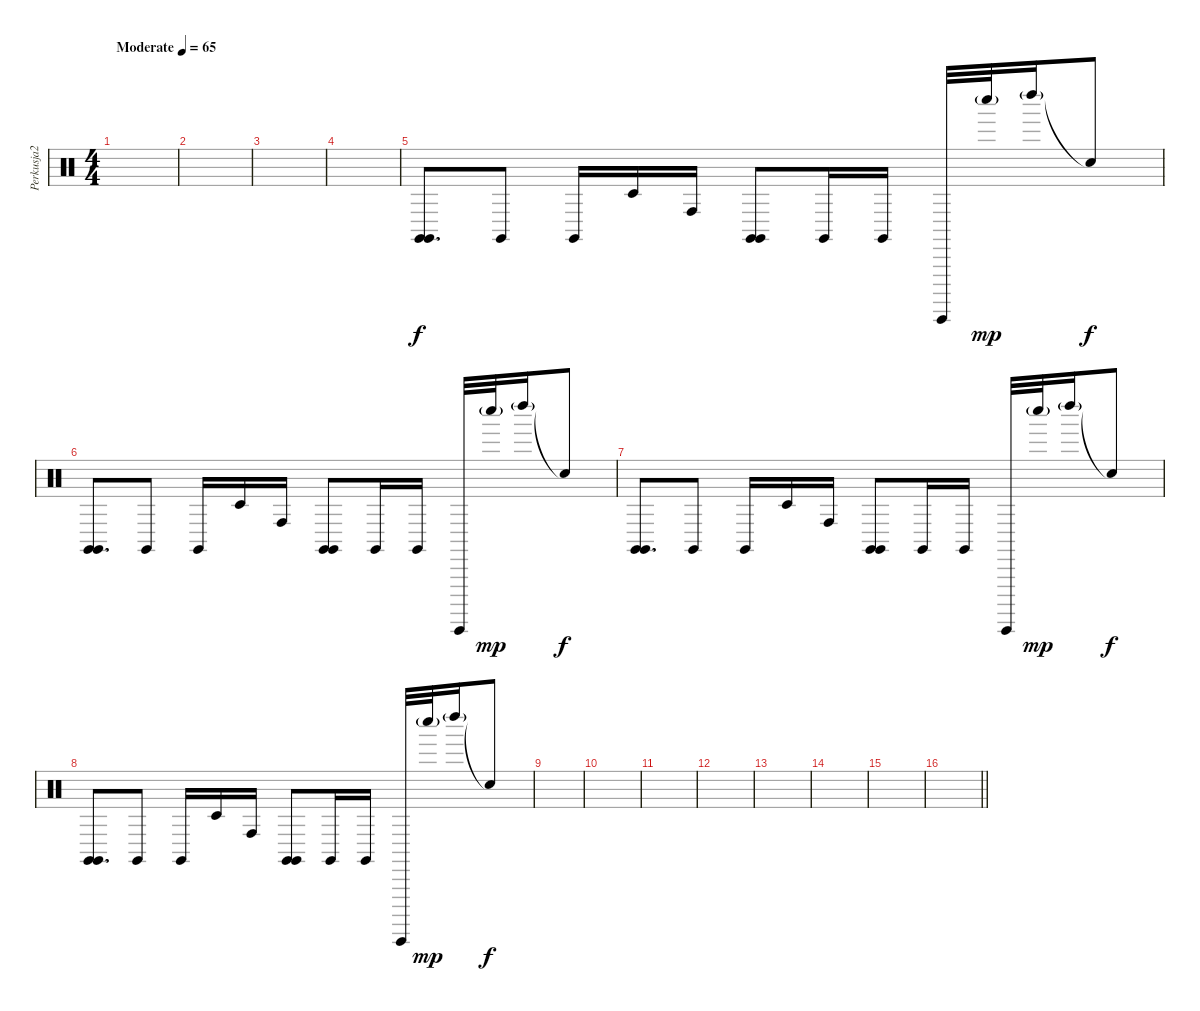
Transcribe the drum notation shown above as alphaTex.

\track ("Perkusja2" "Perkusja2") {instrument percussion}
\staff {score}
\articulation defaults
\ts (4 4)
\tempo (65 "Moderate")
\clef neutral
\ks c
|
|
|
|
("Claves (hit)" "Claves (hit)").8{d} "Claves (hit)".8 "Claves (hit)".16 "Timbale low (hit)".16 "Conga high (hit)".16 ("Claves (hit)" "Claves (hit)").8 "Claves (hit)".16 "Claves (hit)".16 "Guiro (hit)".32 "Whistle low (hit)"{g}.32{dy mp} "Left Maraca (hit)"{g}.16 "Snare (hit)"{t}.8{dy f} |
("Claves (hit)" "Claves (hit)").8{d} "Claves (hit)".8 "Claves (hit)".16 "Timbale low (hit)".16 "Conga high (hit)".16 ("Claves (hit)" "Claves (hit)").8 "Claves (hit)".16 "Claves (hit)".16 "Guiro (hit)".32 "Whistle low (hit)"{g}.32{dy mp} "Left Maraca (hit)"{g}.16 "Snare (hit)"{t}.8{dy f} |
("Claves (hit)" "Claves (hit)").8{d} "Claves (hit)".8 "Claves (hit)".16 "Timbale low (hit)".16 "Conga high (hit)".16 ("Claves (hit)" "Claves (hit)").8 "Claves (hit)".16 "Claves (hit)".16 "Guiro (hit)".32 "Whistle low (hit)"{g}.32{dy mp} "Left Maraca (hit)"{g}.16 "Snare (hit)"{t}.8{dy f} |
("Claves (hit)" "Claves (hit)").8{d} "Claves (hit)".8 "Claves (hit)".16 "Timbale low (hit)".16 "Conga high (hit)".16 ("Claves (hit)" "Claves (hit)").8 "Claves (hit)".16 "Claves (hit)".16 "Guiro (hit)".32 "Whistle low (hit)"{g}.32{dy mp} "Left Maraca (hit)"{g}.16 "Snare (hit)"{t}.8{dy f} |
|
|
|
|
|
|
|
\barLineRight lightlight
